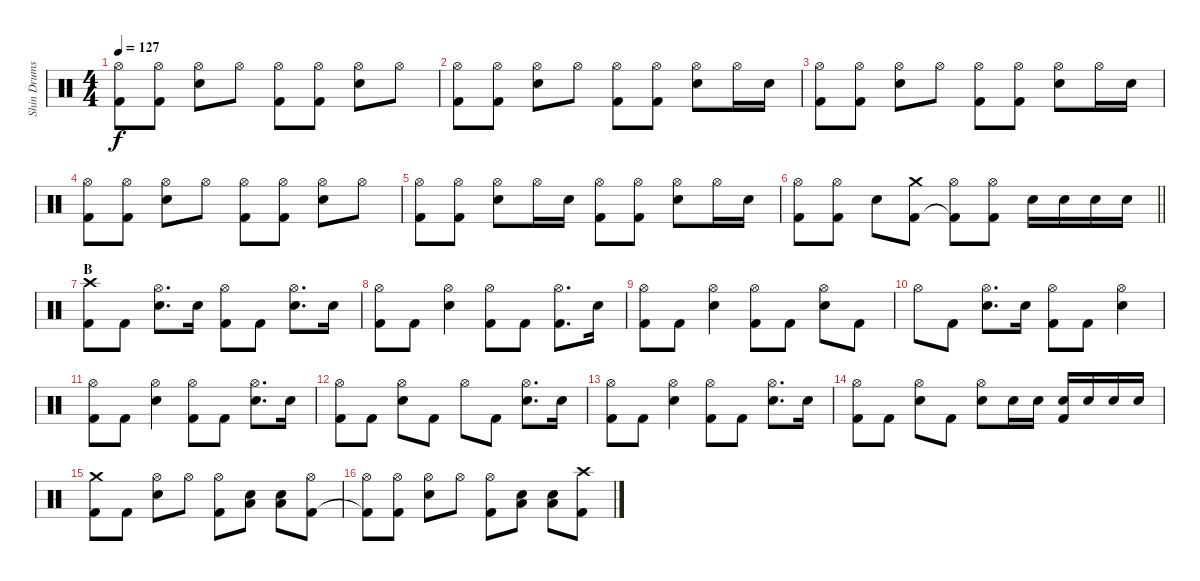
\track ("Shin Drums" "Shin Drums") {instrument percussion}
\staff {score}
\articulation defaults
\ts (4 4)
\tempo 127
\clef neutral
\ks c
("Hi-Hat (open)" "Kick (hit) 2").8{dy f} ("Hi-Hat (open)" "Kick (hit) 2").8 ("Hi-Hat (open)" "Snare (hit) 2").8 "Hi-Hat (open)".8 ("Hi-Hat (open)" "Kick (hit) 2").8 ("Hi-Hat (open)" "Kick (hit) 2").8 ("Hi-Hat (open)" "Snare (hit) 2").8 "Hi-Hat (open)".8 |
("Hi-Hat (open)" "Kick (hit) 2").8 ("Hi-Hat (open)" "Kick (hit) 2").8 ("Hi-Hat (open)" "Snare (hit) 2").8 "Hi-Hat (open)".8 ("Hi-Hat (open)" "Kick (hit) 2").8 ("Hi-Hat (open)" "Kick (hit) 2").8 ("Hi-Hat (open)" "Snare (hit) 2").8 "Hi-Hat (open)".16 "Snare (hit) 2".16 |
("Hi-Hat (open)" "Kick (hit) 2").8 ("Hi-Hat (open)" "Kick (hit) 2").8 ("Hi-Hat (open)" "Snare (hit) 2").8 "Hi-Hat (open)".8 ("Hi-Hat (open)" "Kick (hit) 2").8 ("Hi-Hat (open)" "Kick (hit) 2").8 ("Hi-Hat (open)" "Snare (hit) 2").8 "Hi-Hat (open)".16 "Snare (hit) 2".16 |
("Hi-Hat (open)" "Kick (hit) 2").8 ("Hi-Hat (open)" "Kick (hit) 2").8 ("Hi-Hat (open)" "Snare (hit) 2").8 "Hi-Hat (open)".8 ("Hi-Hat (open)" "Kick (hit) 2").8 ("Hi-Hat (open)" "Kick (hit) 2").8 ("Hi-Hat (open)" "Snare (hit) 2").8 "Hi-Hat (open)".8 |
("Hi-Hat (open)" "Kick (hit) 2").8 ("Hi-Hat (open)" "Kick (hit) 2").8 ("Hi-Hat (open)" "Snare (hit) 2").8 "Hi-Hat (open)".16 "Snare (hit) 2".16 ("Hi-Hat (open)" "Kick (hit) 2").8 ("Hi-Hat (open)" "Kick (hit) 2").8 ("Hi-Hat (open)" "Snare (hit) 2").8 "Hi-Hat (open)".16 "Snare (hit) 2".16 |
\barLineRight lightlight
("Hi-Hat (open)" "Kick (hit) 2").8 ("Hi-Hat (open)" "Kick (hit) 2").8 "Snare (hit) 2".8 ("Crash medium (hit)" "Kick (hit) 2").8 ("Hi-Hat (open)" "Kick (hit) 2"{t}).8 ("Hi-Hat (open)" "Kick (hit) 2").8 "Snare (hit) 2".16 "Snare (hit) 2".16 "Snare (hit) 2".16 "Snare (hit) 2".16 |
\section ("" "B")
("Crash high (hit)" "Kick (hit) 2").8 "Kick (hit) 2".8 ("Hi-Hat (open)" "Snare (hit) 2").8{d} "Snare (hit) 2".16 ("Hi-Hat (open)" "Kick (hit) 2").8 "Kick (hit) 2".8 ("Hi-Hat (open)" "Snare (hit) 2").8{d} "Snare (hit) 2".16 |
("Hi-Hat (open)" "Kick (hit) 2").8 "Kick (hit) 2".8 ("Hi-Hat (open)" "Snare (hit) 2").4 ("Hi-Hat (open)" "Kick (hit) 2").8 "Kick (hit) 2".8 ("Hi-Hat (open)" "Kick (hit) 2").8{d} "Snare (hit) 2".16 |
("Hi-Hat (open)" "Kick (hit) 2").8 "Kick (hit) 2".8 ("Hi-Hat (open)" "Snare (hit) 2").4 ("Hi-Hat (open)" "Kick (hit) 2").8 "Kick (hit) 2".8 ("Hi-Hat (open)" "Snare (hit) 2").8 "Kick (hit) 2".8 |
"Hi-Hat (open)".8 "Kick (hit) 2".8 ("Hi-Hat (open)" "Snare (hit) 2").8{d} "Snare (hit) 2".16 ("Hi-Hat (open)" "Kick (hit) 2").8 "Kick (hit) 2".8 ("Hi-Hat (open)" "Snare (hit) 2").4 |
("Hi-Hat (open)" "Kick (hit) 2").8 "Kick (hit) 2".8 ("Hi-Hat (open)" "Snare (hit) 2").4 ("Hi-Hat (open)" "Kick (hit) 2").8 "Kick (hit) 2".8 ("Hi-Hat (open)" "Snare (hit) 2").8{d} "Snare (hit) 2".16 |
("Hi-Hat (open)" "Kick (hit) 2").8 "Kick (hit) 2".8 ("Hi-Hat (open)" "Snare (hit) 2").8 "Kick (hit) 2".8 "Hi-Hat (open)".8 "Kick (hit) 2".8 ("Hi-Hat (open)" "Snare (hit) 2").8{d} "Snare (hit) 2".16 |
("Hi-Hat (open)" "Kick (hit) 2").8 "Kick (hit) 2".8 ("Hi-Hat (open)" "Snare (hit) 2").4 ("Hi-Hat (open)" "Kick (hit) 2").8 "Kick (hit) 2".8 ("Hi-Hat (open)" "Snare (hit) 2").8{d} "Snare (hit) 2".16 |
("Hi-Hat (open)" "Kick (hit) 2").8 "Kick (hit) 2".8 ("Hi-Hat (open)" "Snare (hit) 2").8 "Kick (hit) 2".8 ("Hi-Hat (open)" "Snare (hit) 2").8 "Snare (hit) 2".16 "Snare (hit) 2".16 ("Snare (hit) 2" "Kick (hit) 2").16 "Snare (hit) 2".16 "Snare (hit) 2".16 "Snare (hit) 2".16 |
("Crash medium (hit)" "Kick (hit) 2").8 "Kick (hit) 2".8 ("Hi-Hat (open)" "Snare (hit) 2").8 "Hi-Hat (open)".8 ("Hi-Hat (open)" "Kick (hit) 2").8 ("Snare (hit) 2" "Low Tom (hit)").8 ("Snare (hit) 2" "Low Tom (hit)").8 ("Hi-Hat (open)" "Kick (hit) 2").8 |
("Hi-Hat (open)" "Kick (hit) 2"{t}).8 ("Hi-Hat (open)" "Kick (hit) 2").8 ("Hi-Hat (open)" "Snare (hit) 2").8 "Hi-Hat (open)".8 ("Hi-Hat (open)" "Kick (hit) 2").8 ("Snare (hit) 2" "Low Tom (hit)").8 ("Snare (hit) 2" "Low Tom (hit)").8 ("Crash high (hit)" "Kick (hit) 2").8
